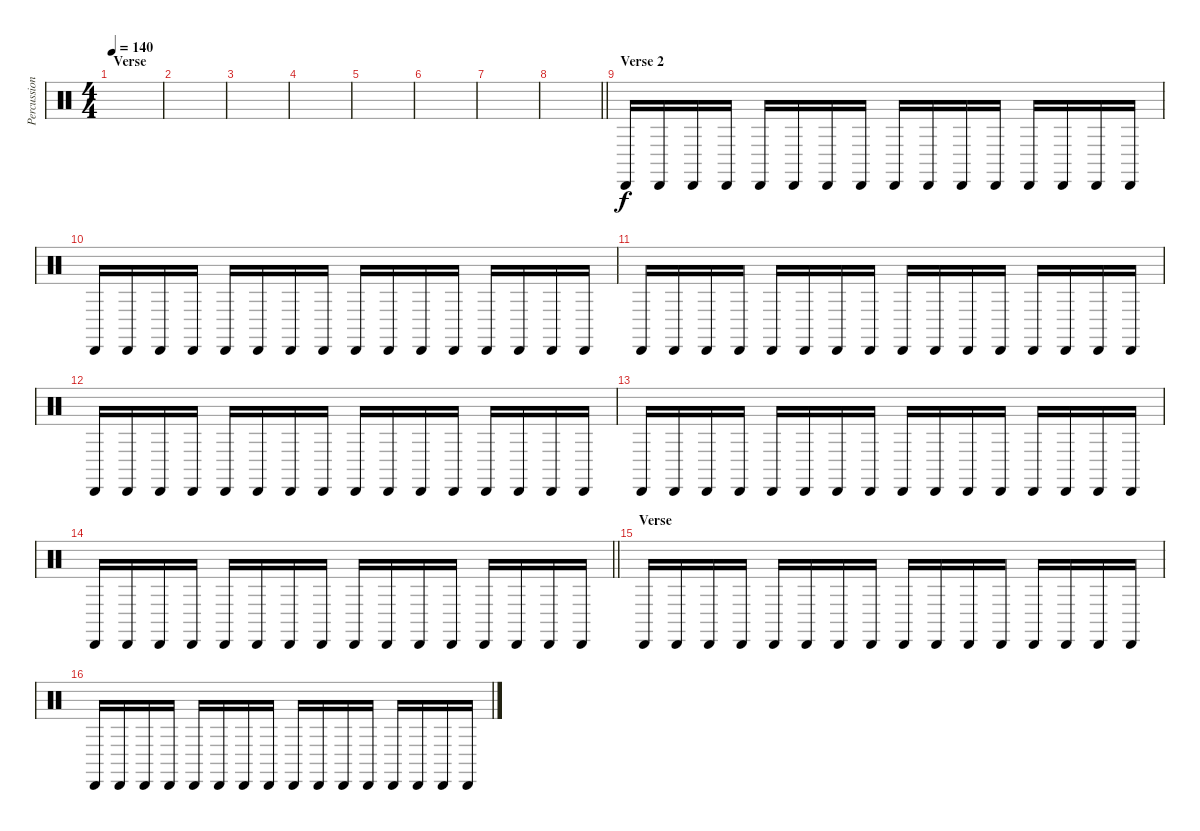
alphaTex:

\track ("Percussioni" "Percussion") {instrument percussion}
\staff {score}
\articulation defaults
\ts (4 4)
\section ("" "Verse")
\tempo 140
\clef neutral
\ks c
|
|
|
|
|
|
|
\barLineRight lightlight
|
\section ("" "Verse 2")
"Cabasa (hit)".16 "Cabasa (hit)".16 "Cabasa (hit)".16 "Cabasa (hit)".16 "Cabasa (hit)".16 "Cabasa (hit)".16 "Cabasa (hit)".16 "Cabasa (hit)".16 "Cabasa (hit)".16 "Cabasa (hit)".16 "Cabasa (hit)".16 "Cabasa (hit)".16 "Cabasa (hit)".16 "Cabasa (hit)".16 "Cabasa (hit)".16 "Cabasa (hit)".16 |
"Cabasa (hit)".16 "Cabasa (hit)".16 "Cabasa (hit)".16 "Cabasa (hit)".16 "Cabasa (hit)".16 "Cabasa (hit)".16 "Cabasa (hit)".16 "Cabasa (hit)".16 "Cabasa (hit)".16 "Cabasa (hit)".16 "Cabasa (hit)".16 "Cabasa (hit)".16 "Cabasa (hit)".16 "Cabasa (hit)".16 "Cabasa (hit)".16 "Cabasa (hit)".16 |
"Cabasa (hit)".16 "Cabasa (hit)".16 "Cabasa (hit)".16 "Cabasa (hit)".16 "Cabasa (hit)".16 "Cabasa (hit)".16 "Cabasa (hit)".16 "Cabasa (hit)".16 "Cabasa (hit)".16 "Cabasa (hit)".16 "Cabasa (hit)".16 "Cabasa (hit)".16 "Cabasa (hit)".16 "Cabasa (hit)".16 "Cabasa (hit)".16 "Cabasa (hit)".16 |
"Cabasa (hit)".16 "Cabasa (hit)".16 "Cabasa (hit)".16 "Cabasa (hit)".16 "Cabasa (hit)".16 "Cabasa (hit)".16 "Cabasa (hit)".16 "Cabasa (hit)".16 "Cabasa (hit)".16 "Cabasa (hit)".16 "Cabasa (hit)".16 "Cabasa (hit)".16 "Cabasa (hit)".16 "Cabasa (hit)".16 "Cabasa (hit)".16 "Cabasa (hit)".16 |
"Cabasa (hit)".16 "Cabasa (hit)".16 "Cabasa (hit)".16 "Cabasa (hit)".16 "Cabasa (hit)".16 "Cabasa (hit)".16 "Cabasa (hit)".16 "Cabasa (hit)".16 "Cabasa (hit)".16 "Cabasa (hit)".16 "Cabasa (hit)".16 "Cabasa (hit)".16 "Cabasa (hit)".16 "Cabasa (hit)".16 "Cabasa (hit)".16 "Cabasa (hit)".16 |
\barLineRight lightlight "Cabasa (hit)".16 "Cabasa (hit)".16 "Cabasa (hit)".16 "Cabasa (hit)".16 "Cabasa (hit)".16 "Cabasa (hit)".16 "Cabasa (hit)".16 "Cabasa (hit)".16 "Cabasa (hit)".16 "Cabasa (hit)".16 "Cabasa (hit)".16 "Cabasa (hit)".16 "Cabasa (hit)".16 "Cabasa (hit)".16 "Cabasa (hit)".16 "Cabasa (hit)".16
|
\section ("" "Verse")
"Cabasa (hit)".16 "Cabasa (hit)".16 "Cabasa (hit)".16 "Cabasa (hit)".16 "Cabasa (hit)".16 "Cabasa (hit)".16 "Cabasa (hit)".16 "Cabasa (hit)".16 "Cabasa (hit)".16 "Cabasa (hit)".16 "Cabasa (hit)".16 "Cabasa (hit)".16 "Cabasa (hit)".16 "Cabasa (hit)".16 "Cabasa (hit)".16 "Cabasa (hit)".16 |
"Cabasa (hit)".16 "Cabasa (hit)".16 "Cabasa (hit)".16 "Cabasa (hit)".16 "Cabasa (hit)".16 "Cabasa (hit)".16 "Cabasa (hit)".16 "Cabasa (hit)".16 "Cabasa (hit)".16 "Cabasa (hit)".16 "Cabasa (hit)".16 "Cabasa (hit)".16 "Cabasa (hit)".16 "Cabasa (hit)".16 "Cabasa (hit)".16 "Cabasa (hit)".16
